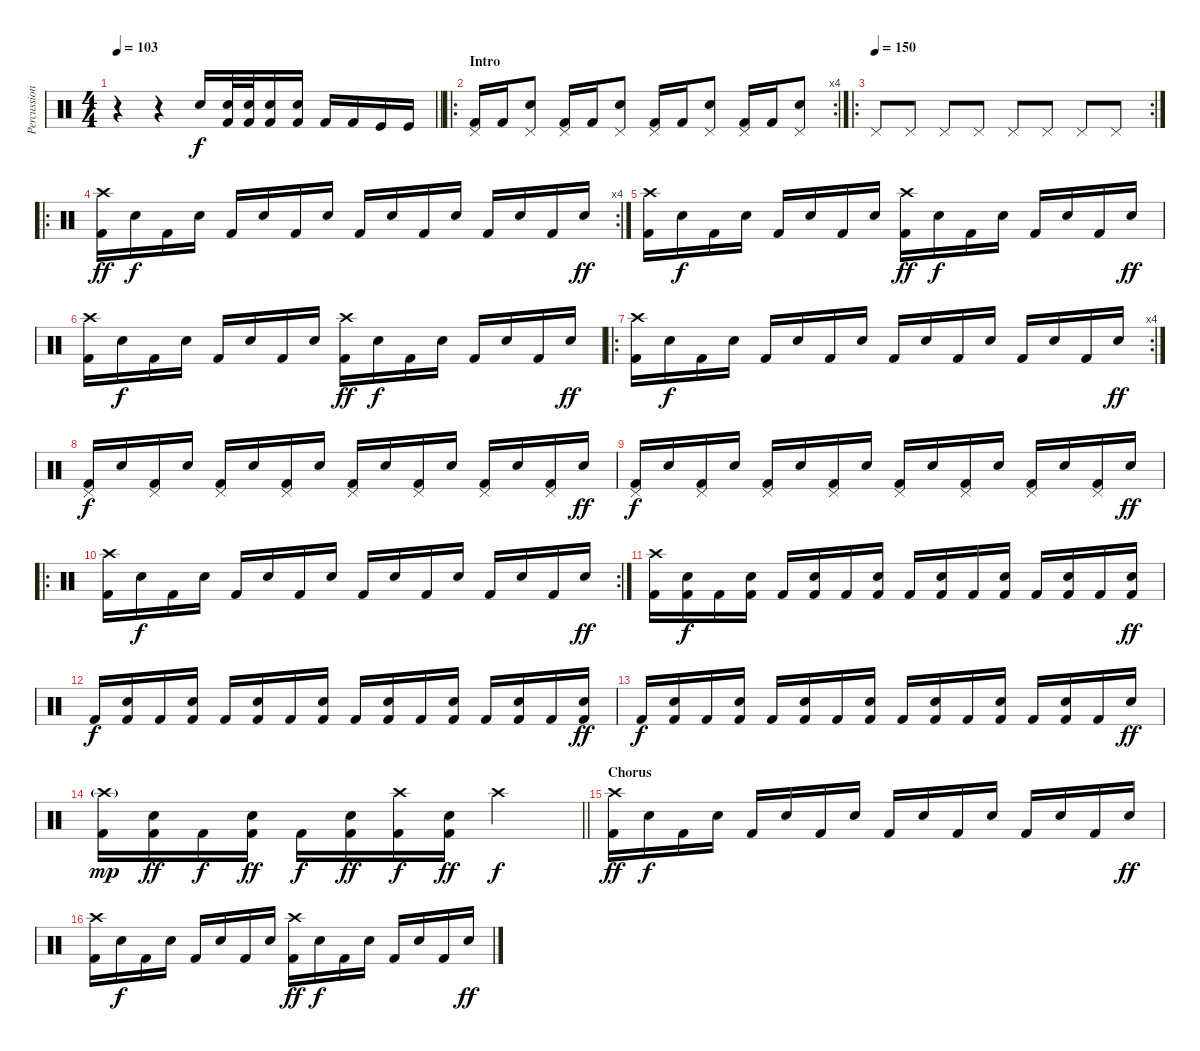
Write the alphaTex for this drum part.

\track ("Percussion" "Percussion") {instrument percussion}
\staff {score}
\articulation defaults
\ts (4 4)
\tempo 103
\clef neutral
\barLineRight lightlight
\ks c
r.4{dy f} r.4 "Electric Snare (hit)".16 ("Electric Snare (hit)" "Kick (hit) 2").32 ("Electric Snare (hit)" "Kick (hit) 2").32 ("Electric Snare (hit)" "Kick (hit) 2").16 ("Electric Snare (hit)" "Kick (hit) 2").16 "Kick (hit) 2".16 "Kick (hit) 2".16 "Kick (hit)".16 "Kick (hit)".16 |
\ro
\rc 4
\section ("" "Intro")
("Pedal Hi-Hat (hit)" "Kick (hit) 2").16 "Kick (hit) 2".16 ("Pedal Hi-Hat (hit)" "Electric Snare (hit)").8 ("Pedal Hi-Hat (hit)" "Kick (hit) 2").16 "Kick (hit) 2".16 ("Pedal Hi-Hat (hit)" "Electric Snare (hit)").8 ("Pedal Hi-Hat (hit)" "Kick (hit) 2").16 "Kick (hit) 2".16 ("Pedal Hi-Hat (hit)" "Electric Snare (hit)").8 ("Pedal Hi-Hat (hit)" "Kick (hit) 2").16 "Kick (hit) 2".16 ("Pedal Hi-Hat (hit)" "Electric Snare (hit)").8 |
\ro
\rc 2
\tempo (150)
"Pedal Hi-Hat (hit)".8 "Pedal Hi-Hat (hit)".8 "Pedal Hi-Hat (hit)".8 "Pedal Hi-Hat (hit)".8 "Pedal Hi-Hat (hit)".8 "Pedal Hi-Hat (hit)".8 "Pedal Hi-Hat (hit)".8 "Pedal Hi-Hat (hit)".8 |
\ro
\rc 4
("Crash high (hit)" "Kick (hit) 2").16{dy ff} "Electric Snare (hit)".16{dy f} "Kick (hit) 2".16 "Electric Snare (hit)".16 "Kick (hit) 2".16 "Electric Snare (hit)".16 "Kick (hit) 2".16 "Electric Snare (hit)".16 "Kick (hit) 2".16 "Electric Snare (hit)".16 "Kick (hit) 2".16 "Electric Snare (hit)".16 "Kick (hit) 2".16 "Electric Snare (hit)".16 "Kick (hit) 2".16 "Electric Snare (hit)".16{dy ff} |
("Crash high (hit)" "Kick (hit) 2").16 "Electric Snare (hit)".16{dy f} "Kick (hit) 2".16 "Electric Snare (hit)".16 "Kick (hit) 2".16 "Electric Snare (hit)".16 "Kick (hit) 2".16 "Electric Snare (hit)".16 ("Crash high (hit)" "Kick (hit) 2").16{dy ff} "Electric Snare (hit)".16{dy f} "Kick (hit) 2".16 "Electric Snare (hit)".16 "Kick (hit) 2".16 "Electric Snare (hit)".16 "Kick (hit) 2".16 "Electric Snare (hit)".16{dy ff} |
("Crash high (hit)" "Kick (hit) 2").16 "Electric Snare (hit)".16{dy f} "Kick (hit) 2".16 "Electric Snare (hit)".16 "Kick (hit) 2".16 "Electric Snare (hit)".16 "Kick (hit) 2".16 "Electric Snare (hit)".16 ("Crash high (hit)" "Kick (hit) 2").16{dy ff} "Electric Snare (hit)".16{dy f} "Kick (hit) 2".16 "Electric Snare (hit)".16 "Kick (hit) 2".16 "Electric Snare (hit)".16 "Kick (hit) 2".16 "Electric Snare (hit)".16{dy ff} |
\ro
\rc 4
("Crash high (hit)" "Kick (hit) 2").16 "Electric Snare (hit)".16{dy f} "Kick (hit) 2".16 "Electric Snare (hit)".16 "Kick (hit) 2".16 "Electric Snare (hit)".16 "Kick (hit) 2".16 "Electric Snare (hit)".16 "Kick (hit) 2".16 "Electric Snare (hit)".16 "Kick (hit) 2".16 "Electric Snare (hit)".16 "Kick (hit) 2".16 "Electric Snare (hit)".16 "Kick (hit) 2".16 "Electric Snare (hit)".16{dy ff} |
("Pedal Hi-Hat (hit)" "Kick (hit) 2").16{dy f} "Electric Snare (hit)".16 ("Pedal Hi-Hat (hit)" "Kick (hit) 2").16 "Electric Snare (hit)".16 ("Pedal Hi-Hat (hit)" "Kick (hit) 2").16 "Electric Snare (hit)".16 ("Pedal Hi-Hat (hit)" "Kick (hit) 2").16 "Electric Snare (hit)".16 ("Pedal Hi-Hat (hit)" "Kick (hit) 2").16 "Electric Snare (hit)".16 ("Pedal Hi-Hat (hit)" "Kick (hit) 2").16 "Electric Snare (hit)".16 ("Pedal Hi-Hat (hit)" "Kick (hit) 2").16 "Electric Snare (hit)".16 ("Pedal Hi-Hat (hit)" "Kick (hit) 2").16 "Electric Snare (hit)".16{dy ff} |
("Pedal Hi-Hat (hit)" "Kick (hit) 2").16{dy f} "Electric Snare (hit)".16 ("Pedal Hi-Hat (hit)" "Kick (hit) 2").16 "Electric Snare (hit)".16 ("Pedal Hi-Hat (hit)" "Kick (hit) 2").16 "Electric Snare (hit)".16 ("Pedal Hi-Hat (hit)" "Kick (hit) 2").16 "Electric Snare (hit)".16 ("Pedal Hi-Hat (hit)" "Kick (hit) 2").16 "Electric Snare (hit)".16 ("Pedal Hi-Hat (hit)" "Kick (hit) 2").16 "Electric Snare (hit)".16 ("Pedal Hi-Hat (hit)" "Kick (hit) 2").16 "Electric Snare (hit)".16 ("Pedal Hi-Hat (hit)" "Kick (hit) 2").16 "Electric Snare (hit)".16{dy ff} |
\ro
\rc 2
("Crash high (hit)" "Kick (hit) 2").16 "Electric Snare (hit)".16{dy f} "Kick (hit) 2".16 "Electric Snare (hit)".16 "Kick (hit) 2".16 "Electric Snare (hit)".16 "Kick (hit) 2".16 "Electric Snare (hit)".16 "Kick (hit) 2".16 "Electric Snare (hit)".16 "Kick (hit) 2".16 "Electric Snare (hit)".16 "Kick (hit) 2".16 "Electric Snare (hit)".16 "Kick (hit) 2".16 "Electric Snare (hit)".16{dy ff} |
("Crash high (hit)" "Kick (hit) 2").16 ("Electric Snare (hit)" "Kick (hit) 2").16{dy f} "Kick (hit) 2".16 ("Electric Snare (hit)" "Kick (hit) 2").16 "Kick (hit) 2".16 ("Electric Snare (hit)" "Kick (hit) 2").16 "Kick (hit) 2".16 ("Electric Snare (hit)" "Kick (hit) 2").16 "Kick (hit) 2".16 ("Electric Snare (hit)" "Kick (hit) 2").16 "Kick (hit) 2".16 ("Electric Snare (hit)" "Kick (hit) 2").16 "Kick (hit) 2".16 ("Electric Snare (hit)" "Kick (hit) 2").16 "Kick (hit) 2".16 ("Electric Snare (hit)" "Kick (hit) 2").16{dy ff} |
"Kick (hit) 2".16{dy f} ("Electric Snare (hit)" "Kick (hit) 2").16 "Kick (hit) 2".16 ("Electric Snare (hit)" "Kick (hit) 2").16 "Kick (hit) 2".16 ("Electric Snare (hit)" "Kick (hit) 2").16 "Kick (hit) 2".16 ("Electric Snare (hit)" "Kick (hit) 2").16 "Kick (hit) 2".16 ("Electric Snare (hit)" "Kick (hit) 2").16 "Kick (hit) 2".16 ("Electric Snare (hit)" "Kick (hit) 2").16 "Kick (hit) 2".16 ("Electric Snare (hit)" "Kick (hit) 2").16 "Kick (hit) 2".16 ("Electric Snare (hit)" "Kick (hit) 2").16{dy ff} |
"Kick (hit) 2".16{dy f} ("Electric Snare (hit)" "Kick (hit) 2").16 "Kick (hit) 2".16 ("Electric Snare (hit)" "Kick (hit) 2").16 "Kick (hit) 2".16 ("Electric Snare (hit)" "Kick (hit) 2").16 "Kick (hit) 2".16 ("Electric Snare (hit)" "Kick (hit) 2").16 "Kick (hit) 2".16 ("Electric Snare (hit)" "Kick (hit) 2").16 "Kick (hit) 2".16 ("Electric Snare (hit)" "Kick (hit) 2").16 "Kick (hit) 2".16 ("Electric Snare (hit)" "Kick (hit) 2").16 "Kick (hit) 2".16 "Electric Snare (hit)".16{dy ff} |
\barLineRight lightlight
("Crash high (hit)"{g} "Kick (hit) 2").16{dy mp} ("Electric Snare (hit)" "Kick (hit) 2").16{dy ff} "Kick (hit) 2".16{dy f} ("Electric Snare (hit)" "Kick (hit) 2").16{dy ff} "Kick (hit) 2".16{dy f} ("Electric Snare (hit)" "Kick (hit) 2").16{dy ff} ("Crash high (hit)" "Kick (hit) 2").16{dy f} ("Electric Snare (hit)" "Kick (hit) 2").16{dy ff} "Crash high (hit)".2{dy f} |
\section ("" "Chorus")
("Crash high (hit)" "Kick (hit) 2").16{dy ff} "Electric Snare (hit)".16{dy f} "Kick (hit) 2".16 "Electric Snare (hit)".16 "Kick (hit) 2".16 "Electric Snare (hit)".16 "Kick (hit) 2".16 "Electric Snare (hit)".16 "Kick (hit) 2".16 "Electric Snare (hit)".16 "Kick (hit) 2".16 "Electric Snare (hit)".16 "Kick (hit) 2".16 "Electric Snare (hit)".16 "Kick (hit) 2".16 "Electric Snare (hit)".16{dy ff} |
("Crash high (hit)" "Kick (hit) 2").16 "Electric Snare (hit)".16{dy f} "Kick (hit) 2".16 "Electric Snare (hit)".16 "Kick (hit) 2".16 "Electric Snare (hit)".16 "Kick (hit) 2".16 "Electric Snare (hit)".16 ("Crash high (hit)" "Kick (hit) 2").16{dy ff} "Electric Snare (hit)".16{dy f} "Kick (hit) 2".16 "Electric Snare (hit)".16 "Kick (hit) 2".16 "Electric Snare (hit)".16 "Kick (hit) 2".16 "Electric Snare (hit)".16{dy ff}
